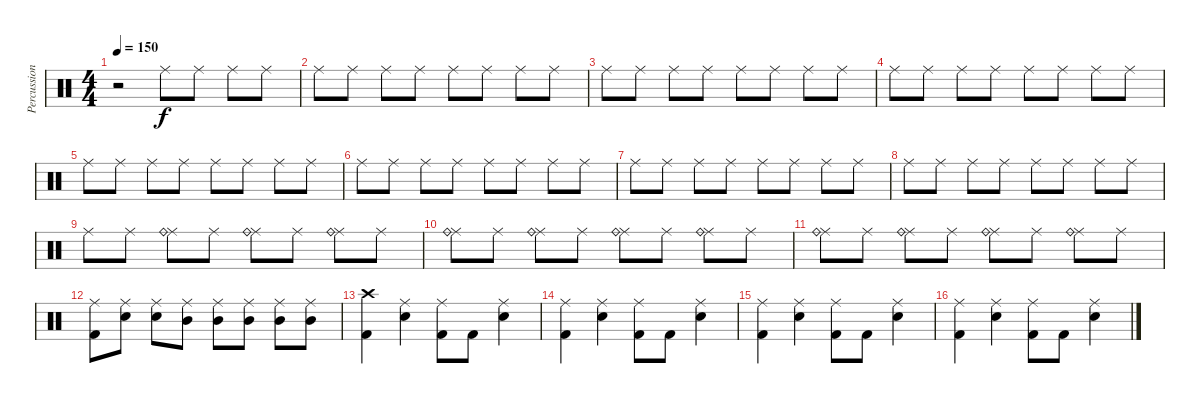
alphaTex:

\track ("Percussions" "Percussion") {instrument percussion}
\staff {score}
\articulation defaults
\ts (4 4)
\tempo 150
\clef neutral
\ks c
r.2{dy f} "Ride (middle)".8 "Ride (middle)".8 "Ride (middle)".8 "Ride (middle)".8 |
"Ride (middle)".8 "Ride (middle)".8 "Ride (middle)".8 "Ride (middle)".8 "Ride (middle)".8 "Ride (middle)".8 "Ride (middle)".8 "Ride (middle)".8 |
"Ride (middle)".8 "Ride (middle)".8 "Ride (middle)".8 "Ride (middle)".8 "Ride (middle)".8 "Ride (middle)".8 "Ride (middle)".8 "Ride (middle)".8 |
"Ride (middle)".8 "Ride (middle)".8 "Ride (middle)".8 "Ride (middle)".8 "Ride (middle)".8 "Ride (middle)".8 "Ride (middle)".8 "Ride (middle)".8 |
"Ride (middle)".8 "Ride (middle)".8 "Ride (middle)".8 "Ride (middle)".8 "Ride (middle)".8 "Ride (middle)".8 "Ride (middle)".8 "Ride (middle)".8 |
"Ride (middle)".8 "Ride (middle)".8 "Ride (middle)".8 "Ride (middle)".8 "Ride (middle)".8 "Ride (middle)".8 "Ride (middle)".8 "Ride (middle)".8 |
"Ride (middle)".8 "Ride (middle)".8 "Ride (middle)".8 "Ride (middle)".8 "Ride (middle)".8 "Ride (middle)".8 "Ride (middle)".8 "Ride (middle)".8 |
"Ride (middle)".8 "Ride (middle)".8 "Ride (middle)".8 "Ride (middle)".8 "Ride (middle)".8 "Ride (middle)".8 "Ride (middle)".8 "Ride (middle)".8 |
"Ride (middle)".8 "Ride (middle)".8 ("Ride (middle)" "Ride (bell)").8 "Ride (middle)".8 ("Ride (middle)" "Ride (bell)").8 "Ride (middle)".8 ("Ride (middle)" "Ride (bell)").8 "Ride (middle)".8 |
("Ride (middle)" "Ride (bell)").8 "Ride (middle)".8 ("Ride (middle)" "Ride (bell)").8 "Ride (middle)".8 ("Ride (middle)" "Ride (bell)").8 "Ride (middle)".8 ("Ride (middle)" "Ride (bell)").8 "Ride (middle)".8 |
("Ride (middle)" "Ride (bell)").8 "Ride (middle)".8 ("Ride (middle)" "Ride (bell)").8 "Ride (middle)".8 ("Ride (middle)" "Ride (bell)").8 "Ride (middle)".8 ("Ride (middle)" "Ride (bell)").8 "Ride (middle)".8 |
("Ride (middle)" "Kick (hit) 2").8 ("Ride (middle)" "Electric Snare (hit)").8 ("Ride (middle)" "Electric Snare (hit)").8 ("Ride (middle)" "Mid Tom (hit)").8 ("Ride (middle)" "Mid Tom (hit)").8 ("Ride (middle)" "Mid Tom (hit)").8 ("Ride (middle)" "Mid Tom (hit)").8 ("Ride (middle)" "Mid Tom (hit)").8 |
("Crash high (hit)" "Kick (hit) 2").4 ("Ride (middle)" "Electric Snare (hit)").4 ("Ride (middle)" "Kick (hit) 2").8 "Kick (hit) 2".8 ("Ride (middle)" "Electric Snare (hit)").4 |
("Ride (middle)" "Kick (hit) 2").4 ("Ride (middle)" "Electric Snare (hit)").4 ("Ride (middle)" "Kick (hit) 2").8 "Kick (hit) 2".8 ("Ride (middle)" "Electric Snare (hit)").4 |
("Ride (middle)" "Kick (hit) 2").4 ("Ride (middle)" "Electric Snare (hit)").4 ("Ride (middle)" "Kick (hit) 2").8 "Kick (hit) 2".8 ("Ride (middle)" "Electric Snare (hit)").4 |
("Ride (middle)" "Kick (hit) 2").4 ("Ride (middle)" "Electric Snare (hit)").4 ("Ride (middle)" "Kick (hit) 2").8 "Kick (hit) 2".8 ("Ride (middle)" "Electric Snare (hit)").4
